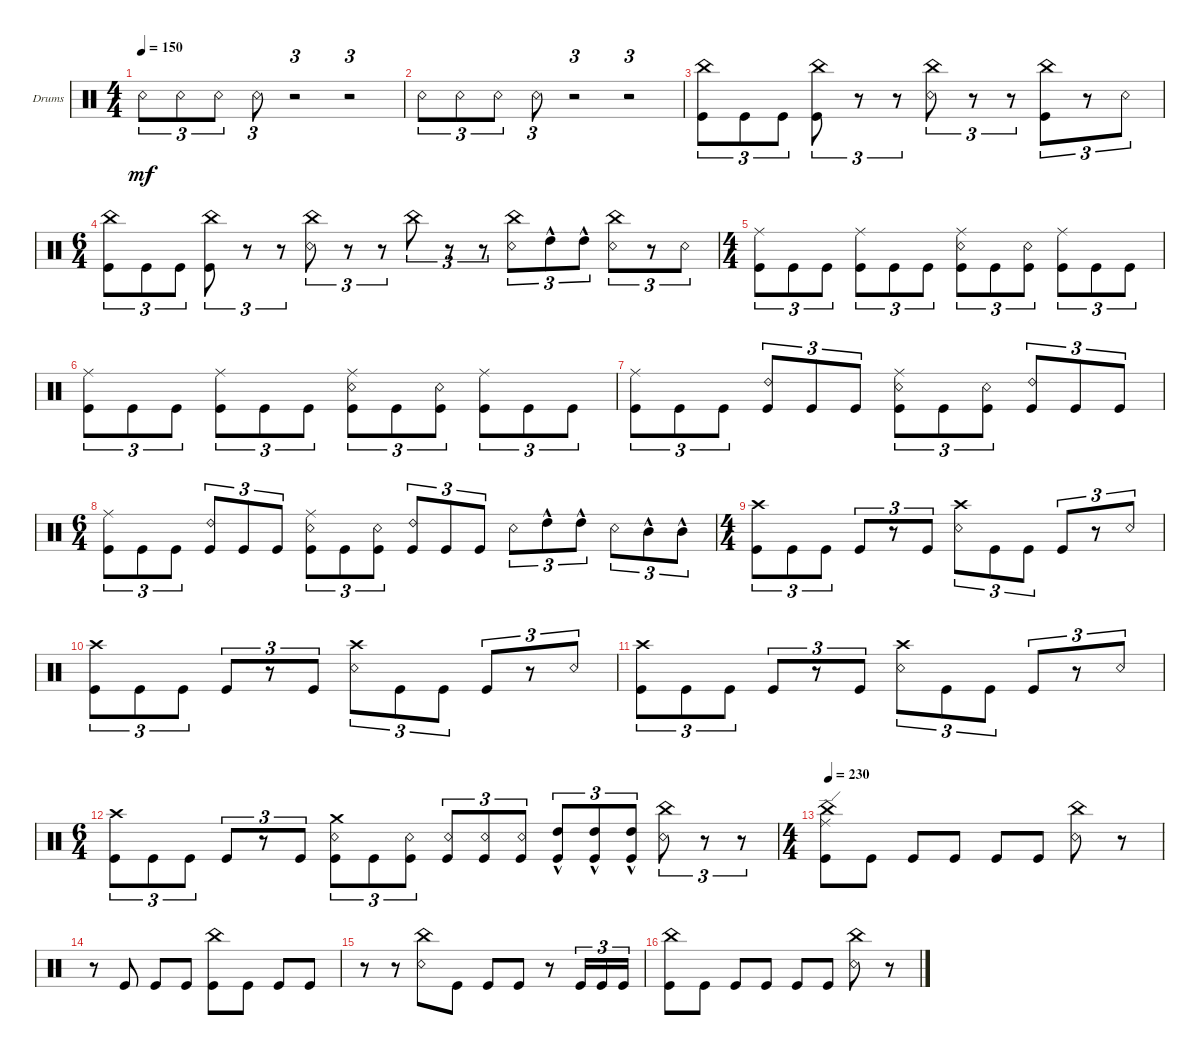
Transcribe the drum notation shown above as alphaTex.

\bracketExtendMode groupsimilarinstruments
\firstSystemTrackNameOrientation horizontal
\otherSystemsTrackNameOrientation horizontal
\track ("Drumkit" "Drums") {instrument percussion}
\staff {score}
\articulation defaults
\ts (4 4)
\tempo 150
\clef neutral
\ks c "Snare (rim shot)".8{tu (3 2) dy mf} "Snare (rim shot)".8{tu (3 2)} "Snare (rim shot)".8{tu (3 2)} "Snare (rim shot)".8{tu (3 2)}
r.2{tu (3 2)} r.2{tu (3 2)} |
"Snare (rim shot)".8{tu (3 2)} "Snare (rim shot)".8{tu (3 2)} "Snare (rim shot)".8{tu (3 2)} "Snare (rim shot)".8{tu (3 2)} r.2{tu (3 2)} r.2{tu (3 2)} |
("Kick (hit)" "China (hit)").8{tu (3 2)} "Kick (hit)".8{tu (3 2)} "Kick (hit)".8{tu (3 2)} ("Kick (hit)" "China (hit)").8{tu (3 2)} r.8{tu (3 2)} r.8{tu (3 2)} ("Snare (rim shot)" "China (hit)").8{tu (3 2)} r.8{tu (3 2)} r.8{tu (3 2)} ("Kick (hit)" "China (hit)").8{tu (3 2)} r.8{tu (3 2)} "Snare (rim shot)".8{tu (3 2)} |
\ts (6 4)
("Kick (hit)" "China (hit)").8{tu (3 2)} "Kick (hit)".8{tu (3 2)} "Kick (hit)".8{tu (3 2)} ("Kick (hit)" "China (hit)").8{tu (3 2)} r.8{tu (3 2)} r.8{tu (3 2)} ("Snare (rim shot)" "China (hit)").8{tu (3 2)} r.8{tu (3 2)} r.8{tu (3 2)} "China (hit)".8{tu (3 2)} r.8{tu (3 2)} r.8{tu (3 2)} ("China (hit)" "Snare (rim shot)").8{tu (3 2)} "High Tom (hit)"{hac}.8{tu (3 2)} "High Tom (hit)"{hac}.8{tu (3 2)} ("China (hit)" "Snare (rim shot)").8{tu (3 2)} r.8{tu (3 2)} "Snare (rim shot)".8{tu (3 2)} |
\ts (4 4)
("Kick (hit)" "Ride (middle)").8{tu (3 2)} "Kick (hit)".8{tu (3 2)} "Kick (hit)".8{tu (3 2)} ("Kick (hit)" "Ride (middle)").8{tu (3 2)} "Kick (hit)".8{tu (3 2)} "Kick (hit)".8{tu (3 2)} ("Kick (hit)" "Ride (middle)" "Snare (rim shot)").8{tu (3 2)} "Kick (hit)".8{tu (3 2)} ("Kick (hit)" "Snare (rim shot)").8{tu (3 2)} ("Kick (hit)" "Ride (middle)").8{tu (3 2)} "Kick (hit)".8{tu (3 2)} "Kick (hit)".8{tu (3 2)} |
("Kick (hit)" "Ride (middle)").8{tu (3 2)} "Kick (hit)".8{tu (3 2)} "Kick (hit)".8{tu (3 2)} ("Kick (hit)" "Ride (middle)").8{tu (3 2)} "Kick (hit)".8{tu (3 2)} "Kick (hit)".8{tu (3 2)} ("Kick (hit)" "Ride (middle)" "Snare (rim shot)").8{tu (3 2)} "Kick (hit)".8{tu (3 2)} ("Kick (hit)" "Snare (rim shot)").8{tu (3 2)} ("Kick (hit)" "Ride (middle)").8{tu (3 2)} "Kick (hit)".8{tu (3 2)} "Kick (hit)".8{tu (3 2)} |
("Kick (hit)" "Ride (middle)").8{tu (3 2)} "Kick (hit)".8{tu (3 2)} "Kick (hit)".8{tu (3 2)} ("Kick (hit)" "Ride (bell) 2").8{tu (3 2)} "Kick (hit)".8{tu (3 2)} "Kick (hit)".8{tu (3 2)} ("Kick (hit)" "Ride (middle)" "Snare (rim shot)").8{tu (3 2)} "Kick (hit)".8{tu (3 2)} ("Kick (hit)" "Snare (rim shot)").8{tu (3 2)} ("Kick (hit)" "Ride (bell) 2").8{tu (3 2)} "Kick (hit)".8{tu (3 2)} "Kick (hit)".8{tu (3 2)} |
\ts (6 4)
("Kick (hit)" "Ride (middle)").8{tu (3 2)} "Kick (hit)".8{tu (3 2)} "Kick (hit)".8{tu (3 2)} ("Kick (hit)" "Ride (bell) 2").8{tu (3 2)} "Kick (hit)".8{tu (3 2)} "Kick (hit)".8{tu (3 2)} ("Kick (hit)" "Ride (middle)" "Snare (rim shot)").8{tu (3 2)} "Kick (hit)".8{tu (3 2)} ("Kick (hit)" "Snare (rim shot)").8{tu (3 2)} ("Kick (hit)" "Ride (bell) 2").8{tu (3 2)} "Kick (hit)".8{tu (3 2)} "Kick (hit)".8{tu (3 2)} "Snare (rim shot)".8{tu (3 2)} "High Tom (hit)"{hac}.8{tu (3 2)} "High Tom (hit)"{hac}.8{tu (3 2)} "Snare (rim shot)".8{tu (3 2)} "Mid Tom (hit)"{hac}.8{tu (3 2)} "Mid Tom (hit)"{hac}.8{tu (3 2)} |
\ts (4 4)
("Kick (hit)" "Crash high (hit)").8{tu (3 2)} "Kick (hit)".8{tu (3 2)} "Kick (hit)".8{tu (3 2)} "Kick (hit)".8{tu (3 2)} r.8{tu (3 2)} "Kick (hit)".8{tu (3 2)} ("Snare (rim shot)" "Crash high (hit)").8{tu (3 2)} "Kick (hit)".8{tu (3 2)} "Kick (hit)".8{tu (3 2)} "Kick (hit)".8{tu (3 2)} r.8{tu (3 2)} "Snare (rim shot)".8{tu (3 2)} |
("Kick (hit)" "Crash high (hit)").8{tu (3 2)} "Kick (hit)".8{tu (3 2)} "Kick (hit)".8{tu (3 2)} "Kick (hit)".8{tu (3 2)} r.8{tu (3 2)} "Kick (hit)".8{tu (3 2)} ("Snare (rim shot)" "Crash high (hit)").8{tu (3 2)} "Kick (hit)".8{tu (3 2)} "Kick (hit)".8{tu (3 2)} "Kick (hit)".8{tu (3 2)} r.8{tu (3 2)} "Snare (rim shot)".8{tu (3 2)} |
("Kick (hit)" "Crash high (hit)").8{tu (3 2)} "Kick (hit)".8{tu (3 2)} "Kick (hit)".8{tu (3 2)} "Kick (hit)".8{tu (3 2)} r.8{tu (3 2)} "Kick (hit)".8{tu (3 2)} ("Snare (rim shot)" "Crash high (hit)").8{tu (3 2)} "Kick (hit)".8{tu (3 2)} "Kick (hit)".8{tu (3 2)} "Kick (hit)".8{tu (3 2)} r.8{tu (3 2)} "Snare (rim shot)".8{tu (3 2)} |
\ts (6 4)
("Kick (hit)" "Crash high (hit)").8{tu (3 2)} "Kick (hit)".8{tu (3 2)} "Kick (hit)".8{tu (3 2)} "Kick (hit)".8{tu (3 2)} r.8{tu (3 2)} "Kick (hit)".8{tu (3 2)} ("Kick (hit)" "Snare (rim shot)" "Crash medium (hit)").8{tu (3 2)} "Kick (hit)".8{tu (3 2)} ("Kick (hit)" "Snare (rim shot)").8{tu (3 2)} ("Kick (hit)" "Snare (rim shot)").8{tu (3 2)} ("Kick (hit)" "Snare (rim shot)").8{tu (3 2)} ("Kick (hit)" "Snare (rim shot)").8{tu (3 2)} ("Kick (hit)" "High Tom (hit)"{hac}).8{tu (3 2)} ("Kick (hit)" "High Tom (hit)"{hac}).8{tu (3 2)} ("Kick (hit)" "High Tom (hit)"{hac}).8{tu (3 2)} ("Snare (rim shot)" "China (hit)").8{tu (3 2)} r.8{tu (3 2)} r.8{tu (3 2)} |
\ts (4 4)
\tempo 230
("Kick (hit)" "China (hit)" "Ride (edge)").8 "Kick (hit)".8 "Kick (hit)".8 "Kick (hit)".8 "Kick (hit)".8 "Kick (hit)".8 ("Snare (rim shot)" "China (hit)").8 r.8 |
r.8 "Kick (hit)".8 "Kick (hit)".8 "Kick (hit)".8 ("Kick (hit)" "China (hit)").8 "Kick (hit)".8 "Kick (hit)".8 "Kick (hit)".8 |
r.8 r.8 ("Snare (rim shot)" "China (hit)").8 "Kick (hit)".8 "Kick (hit)".8 "Kick (hit)".8 r.8 "Kick (hit)".16{tu (3 2)} "Kick (hit)".16{tu (3 2)} "Kick (hit)".16{tu (3 2)} |
("Kick (hit)" "China (hit)").8 "Kick (hit)".8 "Kick (hit)".8 "Kick (hit)".8 "Kick (hit)".8 "Kick (hit)".8 ("Snare (rim shot)" "China (hit)").8 r.8
